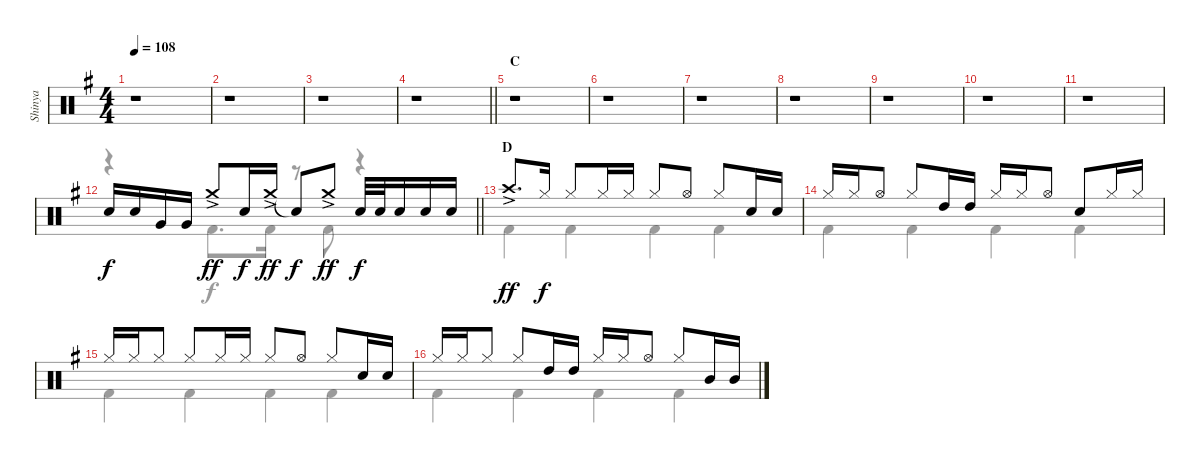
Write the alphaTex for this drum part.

\track ("Shinya" "Shinya") {instrument percussion}
\staff {score}
\articulation defaults
\voice
\ts (4 4)
\tempo 108
\clef neutral
\ks eminor
r.1{dy f} |
r.1 |
r.1 |
\barLineRight lightlight
r.1 |
\section ("" "C")
r.1 |
r.1 |
r.1 |
r.1 |
r.1 |
r.1 |
r.1 |
\barLineRight lightlight "Snare (hit) 2".16 "Snare (hit) 2".16 "Very Low Tom (hit)".16 "Very Low Tom (hit)".16 "Crash medium (hit)"{ac}.8{dy ff} "Snare (hit) 2".16{dy f} "Crash medium (hit)"{ac}.16{dy ff} "Snare (hit)"{t}.8{dy f} "Crash medium (hit)"{ac}.8{dy ff} "Snare (hit) 2".32{dy f} "Snare (hit) 2".32 "Snare (hit) 2".16 "Snare (hit) 2".16 "Snare (hit) 2".16
|
\section ("" "D")
"Crash high (hit)"{ac}.8{d dy ff} "Hi-Hat (closed)".16{dy f} "Hi-Hat (closed)".8 "Hi-Hat (closed)".16 "Hi-Hat (closed)".16 "Hi-Hat (closed)".8 "Hi-Hat (open)".8 "Hi-Hat (closed)".8 "Snare (hit) 2".16 "Snare (hit) 2".16 |
"Hi-Hat (closed)".16 "Hi-Hat (closed)".16 "Hi-Hat (open)".8 "Hi-Hat (closed)".8 "High Tom (hit)".16 "High Tom (hit)".16 "Hi-Hat (closed)".16 "Hi-Hat (closed)".16 "Hi-Hat (open)".8 "Snare (hit) 2".8 "Hi-Hat (closed)".16 "Hi-Hat (closed)".16 |
"Hi-Hat (closed)".16 "Hi-Hat (closed)".16 "Hi-Hat (closed)".8 "Hi-Hat (closed)".8 "Hi-Hat (closed)".16 "Hi-Hat (closed)".16 "Hi-Hat (closed)".8 "Hi-Hat (open)".8 "Hi-Hat (closed)".8 "Snare (hit) 2".16 "Snare (hit) 2".16 |
"Hi-Hat (closed)".16 "Hi-Hat (closed)".16 "Hi-Hat (closed)".8 "Hi-Hat (closed)".8 "High Tom (hit)".16 "High Tom (hit)".16 "Hi-Hat (closed)".16 "Hi-Hat (closed)".16 "Hi-Hat (open)".8 "Hi-Hat (closed)".8 "Mid Tom (hit)".16 "Mid Tom (hit)".16
\voice
\clef neutral
\ottava regular
\simile none
\ks eminor
r.1{dy f} |
r.1 |
r.1 |
\barLineRight lightlight
r.1 |
r.1 |
r.1 |
r.1 |
r.1 |
r.1 |
r.1 |
r.1 |
\barLineRight lightlight
r.4 "Kick (hit) 2".8{d} "Kick (hit) 2".16 r.8 "Kick (hit) 2".8 r.4 |
"Kick (hit) 2".4 "Kick (hit) 2".4 "Kick (hit) 2".4 "Kick (hit) 2".4 |
"Kick (hit) 2".4 "Kick (hit) 2".4 "Kick (hit) 2".4 "Kick (hit) 2".4 |
"Kick (hit) 2".4 "Kick (hit) 2".4 "Kick (hit) 2".4 "Kick (hit) 2".4 |
"Kick (hit) 2".4 "Kick (hit) 2".4 "Kick (hit) 2".4 "Kick (hit) 2".4
